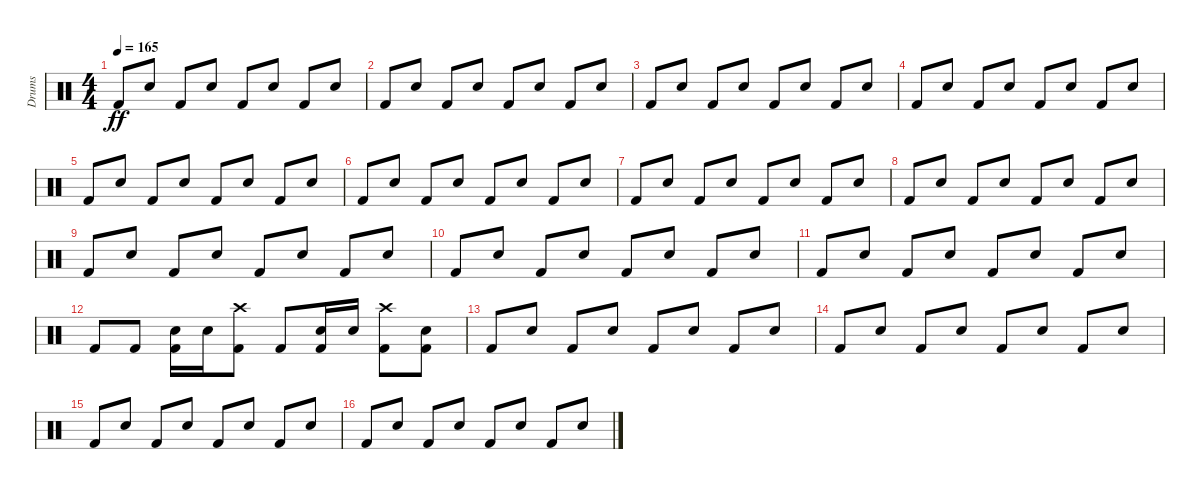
\track ("Drums" "Drums") {instrument percussion}
\staff {score}
\articulation defaults
\ts (4 4)
\tempo 165
\clef neutral
\ks c "Kick (hit) 2".8{dy ff} "Snare (hit) 2".8 "Kick (hit) 2".8 "Snare (hit) 2".8 "Kick (hit) 2".8 "Snare (hit) 2".8 "Kick (hit) 2".8 "Snare (hit) 2".8
|
"Kick (hit) 2".8 "Snare (hit) 2".8 "Kick (hit) 2".8 "Snare (hit) 2".8 "Kick (hit) 2".8 "Snare (hit) 2".8 "Kick (hit) 2".8 "Snare (hit) 2".8 |
"Kick (hit) 2".8 "Snare (hit) 2".8 "Kick (hit) 2".8 "Snare (hit) 2".8 "Kick (hit) 2".8 "Snare (hit) 2".8 "Kick (hit) 2".8 "Snare (hit) 2".8 |
"Kick (hit) 2".8 "Snare (hit) 2".8 "Kick (hit) 2".8 "Snare (hit) 2".8 "Kick (hit) 2".8 "Snare (hit) 2".8 "Kick (hit) 2".8 "Snare (hit) 2".8 |
"Kick (hit) 2".8 "Snare (hit) 2".8 "Kick (hit) 2".8 "Snare (hit) 2".8 "Kick (hit) 2".8 "Snare (hit) 2".8 "Kick (hit) 2".8 "Snare (hit) 2".8 |
"Kick (hit) 2".8 "Snare (hit) 2".8 "Kick (hit) 2".8 "Snare (hit) 2".8 "Kick (hit) 2".8 "Snare (hit) 2".8 "Kick (hit) 2".8 "Snare (hit) 2".8 |
"Kick (hit) 2".8 "Snare (hit) 2".8 "Kick (hit) 2".8 "Snare (hit) 2".8 "Kick (hit) 2".8 "Snare (hit) 2".8 "Kick (hit) 2".8 "Snare (hit) 2".8 |
"Kick (hit) 2".8 "Snare (hit) 2".8 "Kick (hit) 2".8 "Snare (hit) 2".8 "Kick (hit) 2".8 "Snare (hit) 2".8 "Kick (hit) 2".8 "Snare (hit) 2".8 |
"Kick (hit) 2".8 "Snare (hit) 2".8 "Kick (hit) 2".8 "Snare (hit) 2".8 "Kick (hit) 2".8 "Snare (hit) 2".8 "Kick (hit) 2".8 "Snare (hit) 2".8 |
"Kick (hit) 2".8 "Snare (hit) 2".8 "Kick (hit) 2".8 "Snare (hit) 2".8 "Kick (hit) 2".8 "Snare (hit) 2".8 "Kick (hit) 2".8 "Snare (hit) 2".8 |
"Kick (hit) 2".8 "Snare (hit) 2".8 "Kick (hit) 2".8 "Snare (hit) 2".8 "Kick (hit) 2".8 "Snare (hit) 2".8 "Kick (hit) 2".8 "Snare (hit) 2".8 |
"Kick (hit) 2".8 "Kick (hit) 2".8 ("Snare (hit) 2" "Kick (hit) 2").16 "Snare (hit) 2".16 ("Crash high (hit)" "Kick (hit) 2").8 "Kick (hit) 2".8 ("Snare (hit) 2" "Kick (hit) 2").16 "Snare (hit) 2".16 ("Crash high (hit)" "Kick (hit) 2").8 ("Snare (hit) 2" "Kick (hit) 2").8 |
"Kick (hit) 2".8 "Snare (hit) 2".8 "Kick (hit) 2".8 "Snare (hit) 2".8 "Kick (hit) 2".8 "Snare (hit) 2".8 "Kick (hit) 2".8 "Snare (hit) 2".8 |
"Kick (hit) 2".8 "Snare (hit) 2".8 "Kick (hit) 2".8 "Snare (hit) 2".8 "Kick (hit) 2".8 "Snare (hit) 2".8 "Kick (hit) 2".8 "Snare (hit) 2".8 |
"Kick (hit) 2".8 "Snare (hit) 2".8 "Kick (hit) 2".8 "Snare (hit) 2".8 "Kick (hit) 2".8 "Snare (hit) 2".8 "Kick (hit) 2".8 "Snare (hit) 2".8 |
"Kick (hit) 2".8 "Snare (hit) 2".8 "Kick (hit) 2".8 "Snare (hit) 2".8 "Kick (hit) 2".8 "Snare (hit) 2".8 "Kick (hit) 2".8 "Snare (hit) 2".8
